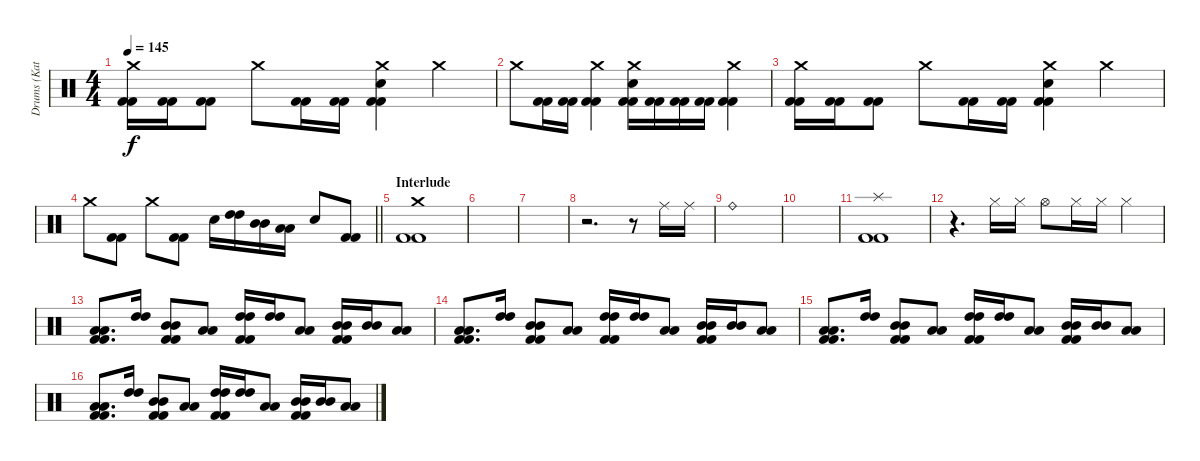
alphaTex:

\track ("Drums (Katsuma)" "Drums (Kat") {instrument percussion}
\staff {score}
\articulation defaults
\ts (4 4)
\tempo 145
\clef neutral
\ks c
("Crash medium (hit)" "Kick (hit) 2" "Kick (hit) 2").16{dy f} ("Kick (hit) 2" "Kick (hit) 2").16 ("Kick (hit) 2" "Kick (hit) 2").8 "Crash medium (hit)".8 ("Kick (hit) 2" "Kick (hit) 2").16 ("Kick (hit) 2" "Kick (hit) 2").16 ("Crash medium (hit)" "Electric Snare (hit)" "Kick (hit) 2" "Kick (hit) 2").4 "Crash medium (hit)".4 |
"Crash medium (hit)".8 ("Kick (hit) 2" "Kick (hit) 2").16 ("Kick (hit) 2" "Kick (hit) 2").16 ("Crash medium (hit)" "Kick (hit) 2" "Kick (hit) 2").4 ("Crash medium (hit)" "Electric Snare (hit)" "Kick (hit) 2" "Kick (hit) 2").16 ("Kick (hit) 2" "Kick (hit) 2").16 ("Kick (hit) 2" "Kick (hit) 2").16 ("Kick (hit) 2" "Kick (hit) 2").16 ("Crash medium (hit)" "Kick (hit) 2" "Kick (hit) 2").4 |
("Crash medium (hit)" "Kick (hit) 2" "Kick (hit) 2").16 ("Kick (hit) 2" "Kick (hit) 2").16 ("Kick (hit) 2" "Kick (hit) 2").8 "Crash medium (hit)".8 ("Kick (hit) 2" "Kick (hit) 2").16 ("Kick (hit) 2" "Kick (hit) 2").16 ("Crash medium (hit)" "Electric Snare (hit)" "Kick (hit) 2" "Kick (hit) 2").4 "Crash medium (hit)".4 |
\barLineRight lightlight "Crash medium (hit)".8
("Kick (hit) 2" "Kick (hit) 2").8 "Crash medium (hit)".8 ("Kick (hit) 2" "Kick (hit) 2").8 "Electric Snare (hit)".16 ("High Tom (hit)" "High Tom (hit)").16 ("Mid Tom (hit)" "Mid Tom (hit)").16 ("Low Tom (hit)" "Low Tom (hit)").16 "Electric Snare (hit)".8 ("Kick (hit) 2" "Kick (hit) 2").8 |
\section ("" "Interlude")
("Crash medium (hit)" "Kick (hit) 2" "Kick (hit) 2").1 |
|
|
r.2{d} r.8 "Ride (middle)".16 "Ride (middle)".16 |
"Ride (bell)".1 |
|
("Splash (hit)" "Kick (hit) 2" "Kick (hit) 2").1 |
r.4{d} "Hi-Hat (closed)".16 "Hi-Hat (closed)".16 "Hi-Hat (open)".8 "Hi-Hat (closed)".16 "Hi-Hat (closed)".16 "Hi-Hat (closed)".4 |
("Low Tom (hit)" "Low Tom (hit)" "Kick (hit) 2" "Kick (hit) 2").8{d} ("High Tom (hit)" "High Tom (hit)").16 ("Mid Tom (hit)" "Mid Tom (hit)" "Kick (hit) 2" "Kick (hit) 2").8 ("Low Tom (hit)" "Low Tom (hit)").8 ("High Tom (hit)" "High Tom (hit)" "Kick (hit) 2" "Kick (hit) 2").16 ("High Tom (hit)" "High Tom (hit)").16 ("Low Tom (hit)" "Low Tom (hit)").8 ("Mid Tom (hit)" "Mid Tom (hit)" "Kick (hit) 2" "Kick (hit) 2").16 ("Mid Tom (hit)" "Mid Tom (hit)").16 ("Low Tom (hit)" "Low Tom (hit)").8 |
("Low Tom (hit)" "Low Tom (hit)" "Kick (hit) 2" "Kick (hit) 2").8{d} ("High Tom (hit)" "High Tom (hit)").16 ("Mid Tom (hit)" "Mid Tom (hit)" "Kick (hit) 2" "Kick (hit) 2").8 ("Low Tom (hit)" "Low Tom (hit)").8 ("High Tom (hit)" "High Tom (hit)" "Kick (hit) 2" "Kick (hit) 2").16 ("High Tom (hit)" "High Tom (hit)").16 ("Low Tom (hit)" "Low Tom (hit)").8 ("Mid Tom (hit)" "Mid Tom (hit)" "Kick (hit) 2" "Kick (hit) 2").16 ("Mid Tom (hit)" "Mid Tom (hit)").16 ("Low Tom (hit)" "Low Tom (hit)").8 |
("Low Tom (hit)" "Low Tom (hit)" "Kick (hit) 2" "Kick (hit) 2").8{d} ("High Tom (hit)" "High Tom (hit)").16 ("Mid Tom (hit)" "Mid Tom (hit)" "Kick (hit) 2" "Kick (hit) 2").8 ("Low Tom (hit)" "Low Tom (hit)").8 ("High Tom (hit)" "High Tom (hit)" "Kick (hit) 2" "Kick (hit) 2").16 ("High Tom (hit)" "High Tom (hit)").16 ("Low Tom (hit)" "Low Tom (hit)").8 ("Mid Tom (hit)" "Mid Tom (hit)" "Kick (hit) 2" "Kick (hit) 2").16 ("Mid Tom (hit)" "Mid Tom (hit)").16 ("Low Tom (hit)" "Low Tom (hit)").8 |
("Low Tom (hit)" "Low Tom (hit)" "Kick (hit) 2" "Kick (hit) 2").8{d} ("High Tom (hit)" "High Tom (hit)").16 ("Mid Tom (hit)" "Mid Tom (hit)" "Kick (hit) 2" "Kick (hit) 2").8 ("Low Tom (hit)" "Low Tom (hit)").8 ("High Tom (hit)" "High Tom (hit)" "Kick (hit) 2" "Kick (hit) 2").16 ("High Tom (hit)" "High Tom (hit)").16 ("Low Tom (hit)" "Low Tom (hit)").8 ("Mid Tom (hit)" "Mid Tom (hit)" "Kick (hit) 2" "Kick (hit) 2").16 ("Mid Tom (hit)" "Mid Tom (hit)").16 ("Low Tom (hit)" "Low Tom (hit)").8
